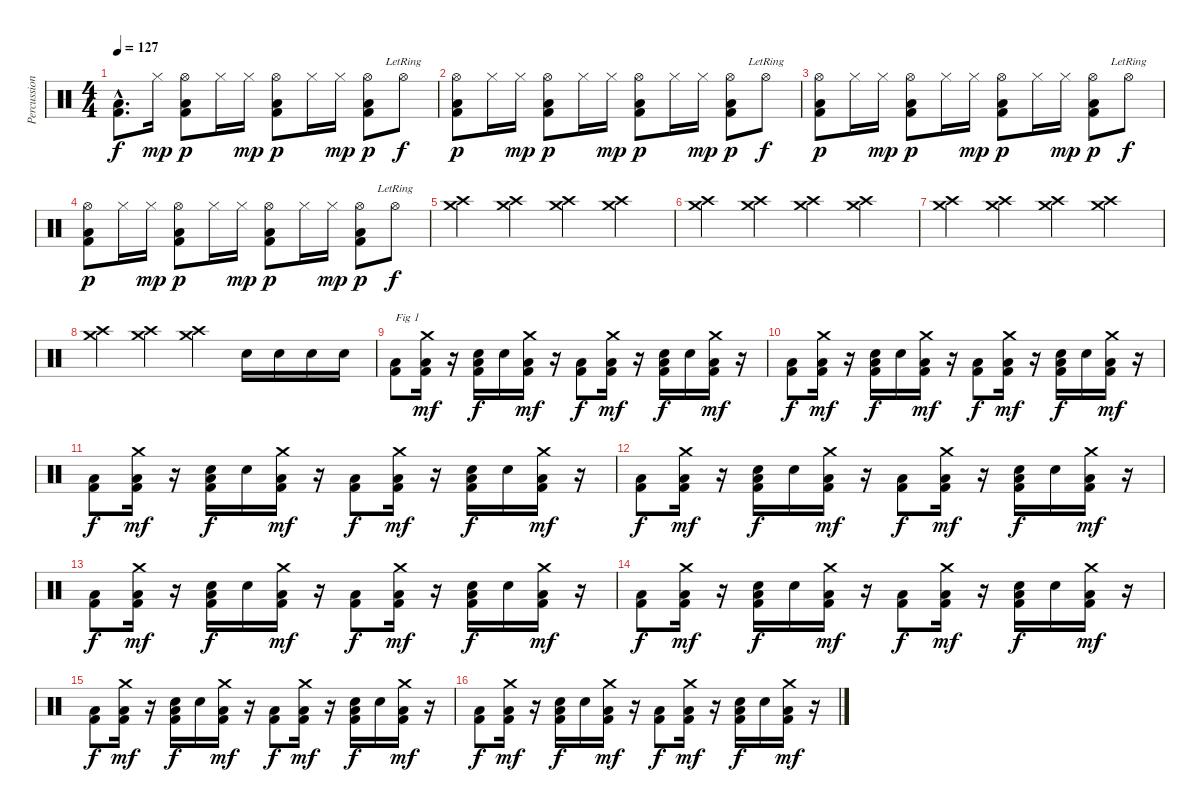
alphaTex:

\track ("Percussions" "Percussion") {instrument percussion}
\staff {score}
\articulation defaults
\ts (4 4)
\tempo 127
\clef neutral
\ks c
("Low Floor Tom (hit)"{hac} "Kick (hit) 2"{hac}).8{d dy f} "Hi-Hat (closed)".16{dy mp} ("Low Floor Tom (hit)" "Kick (hit) 2" "Hi-Hat (open)").8{dy p} "Hi-Hat (closed)".16 "Hi-Hat (closed)".16{dy mp} ("Low Floor Tom (hit)" "Kick (hit) 2" "Hi-Hat (open)").8{dy p} "Hi-Hat (closed)".16 "Hi-Hat (closed)".16{dy mp} ("Low Floor Tom (hit)" "Kick (hit) 2" "Hi-Hat (open)").8{dy p} "Hi-Hat (open)"{lr}.8{dy f} |
("Low Floor Tom (hit)" "Kick (hit) 2" "Hi-Hat (open)").8{dy p} "Hi-Hat (closed)".16 "Hi-Hat (closed)".16{dy mp} ("Low Floor Tom (hit)" "Kick (hit) 2" "Hi-Hat (open)").8{dy p} "Hi-Hat (closed)".16 "Hi-Hat (closed)".16{dy mp} ("Low Floor Tom (hit)" "Kick (hit) 2" "Hi-Hat (open)").8{dy p} "Hi-Hat (closed)".16 "Hi-Hat (closed)".16{dy mp} ("Low Floor Tom (hit)" "Kick (hit) 2" "Hi-Hat (open)").8{dy p} "Hi-Hat (open)"{lr}.8{dy f} |
("Low Floor Tom (hit)" "Kick (hit) 2" "Hi-Hat (open)").8{dy p} "Hi-Hat (closed)".16 "Hi-Hat (closed)".16{dy mp} ("Low Floor Tom (hit)" "Kick (hit) 2" "Hi-Hat (open)").8{dy p} "Hi-Hat (closed)".16 "Hi-Hat (closed)".16{dy mp} ("Low Floor Tom (hit)" "Kick (hit) 2" "Hi-Hat (open)").8{dy p} "Hi-Hat (closed)".16 "Hi-Hat (closed)".16{dy mp} ("Low Floor Tom (hit)" "Kick (hit) 2" "Hi-Hat (open)").8{dy p} "Hi-Hat (open)"{lr}.8{dy f} |
("Low Floor Tom (hit)" "Kick (hit) 2" "Hi-Hat (open)").8{dy p} "Hi-Hat (closed)".16 "Hi-Hat (closed)".16{dy mp} ("Low Floor Tom (hit)" "Kick (hit) 2" "Hi-Hat (open)").8{dy p} "Hi-Hat (closed)".16 "Hi-Hat (closed)".16{dy mp} ("Low Floor Tom (hit)" "Kick (hit) 2" "Hi-Hat (open)").8{dy p} "Hi-Hat (closed)".16 "Hi-Hat (closed)".16{dy mp} ("Low Floor Tom (hit)" "Kick (hit) 2" "Hi-Hat (open)").8{dy p} "Hi-Hat (open)"{lr}.8{dy f} |
("Crash high (hit)" "Crash medium (hit)").4 ("Crash high (hit)" "Crash medium (hit)").4 ("Crash high (hit)" "Crash medium (hit)").4 ("Crash high (hit)" "Crash medium (hit)").4 |
("Crash high (hit)" "Crash medium (hit)").4 ("Crash high (hit)" "Crash medium (hit)").4 ("Crash high (hit)" "Crash medium (hit)").4 ("Crash high (hit)" "Crash medium (hit)").4 |
("Crash high (hit)" "Crash medium (hit)").4 ("Crash high (hit)" "Crash medium (hit)").4 ("Crash high (hit)" "Crash medium (hit)").4 ("Crash high (hit)" "Crash medium (hit)").4 |
("Crash high (hit)" "Crash medium (hit)").4 ("Crash high (hit)" "Crash medium (hit)").4 ("Crash high (hit)" "Crash medium (hit)").4 "Electric Snare (hit)".16 "Electric Snare (hit)".16 "Electric Snare (hit)".16 "Electric Snare (hit)".16 |
("Low Floor Tom (hit)" "Kick (hit) 2").8{txt "Fig 1"} ("Low Floor Tom (hit)" "Kick (hit) 2" "Crash medium (hit)").16{dy mf} r.16 ("Low Floor Tom (hit)" "Kick (hit) 2" "Electric Snare (hit)").16{dy f} "Electric Snare (hit)".16 ("Low Floor Tom (hit)" "Kick (hit) 2" "Crash medium (hit)").16{dy mf} r.16 ("Low Floor Tom (hit)" "Kick (hit) 2").8{dy f} ("Low Floor Tom (hit)" "Kick (hit) 2" "Crash medium (hit)").16{dy mf} r.16 ("Low Floor Tom (hit)" "Kick (hit) 2" "Electric Snare (hit)").16{dy f} "Electric Snare (hit)".16 ("Low Floor Tom (hit)" "Kick (hit) 2" "Crash medium (hit)").16{dy mf} r.16 |
("Low Floor Tom (hit)" "Kick (hit) 2").8{dy f} ("Low Floor Tom (hit)" "Kick (hit) 2" "Crash medium (hit)").16{dy mf} r.16 ("Low Floor Tom (hit)" "Kick (hit) 2" "Electric Snare (hit)").16{dy f} "Electric Snare (hit)".16 ("Low Floor Tom (hit)" "Kick (hit) 2" "Crash medium (hit)").16{dy mf} r.16 ("Low Floor Tom (hit)" "Kick (hit) 2").8{dy f} ("Low Floor Tom (hit)" "Kick (hit) 2" "Crash medium (hit)").16{dy mf} r.16 ("Low Floor Tom (hit)" "Kick (hit) 2" "Electric Snare (hit)").16{dy f} "Electric Snare (hit)".16 ("Low Floor Tom (hit)" "Kick (hit) 2" "Crash medium (hit)").16{dy mf} r.16 |
("Low Floor Tom (hit)" "Kick (hit) 2").8{dy f} ("Low Floor Tom (hit)" "Kick (hit) 2" "Crash medium (hit)").16{dy mf} r.16 ("Low Floor Tom (hit)" "Kick (hit) 2" "Electric Snare (hit)").16{dy f} "Electric Snare (hit)".16 ("Low Floor Tom (hit)" "Kick (hit) 2" "Crash medium (hit)").16{dy mf} r.16 ("Low Floor Tom (hit)" "Kick (hit) 2").8{dy f} ("Low Floor Tom (hit)" "Kick (hit) 2" "Crash medium (hit)").16{dy mf} r.16 ("Low Floor Tom (hit)" "Kick (hit) 2" "Electric Snare (hit)").16{dy f} "Electric Snare (hit)".16 ("Low Floor Tom (hit)" "Kick (hit) 2" "Crash medium (hit)").16{dy mf} r.16 |
("Low Floor Tom (hit)" "Kick (hit) 2").8{dy f} ("Low Floor Tom (hit)" "Kick (hit) 2" "Crash medium (hit)").16{dy mf} r.16 ("Low Floor Tom (hit)" "Kick (hit) 2" "Electric Snare (hit)").16{dy f} "Electric Snare (hit)".16 ("Low Floor Tom (hit)" "Kick (hit) 2" "Crash medium (hit)").16{dy mf} r.16 ("Low Floor Tom (hit)" "Kick (hit) 2").8{dy f} ("Low Floor Tom (hit)" "Kick (hit) 2" "Crash medium (hit)").16{dy mf} r.16 ("Low Floor Tom (hit)" "Kick (hit) 2" "Electric Snare (hit)").16{dy f} "Electric Snare (hit)".16 ("Low Floor Tom (hit)" "Kick (hit) 2" "Crash medium (hit)").16{dy mf} r.16 |
("Low Floor Tom (hit)" "Kick (hit) 2").8{dy f} ("Low Floor Tom (hit)" "Kick (hit) 2" "Crash medium (hit)").16{dy mf} r.16 ("Low Floor Tom (hit)" "Kick (hit) 2" "Electric Snare (hit)").16{dy f} "Electric Snare (hit)".16 ("Low Floor Tom (hit)" "Kick (hit) 2" "Crash medium (hit)").16{dy mf} r.16 ("Low Floor Tom (hit)" "Kick (hit) 2").8{dy f} ("Low Floor Tom (hit)" "Kick (hit) 2" "Crash medium (hit)").16{dy mf} r.16 ("Low Floor Tom (hit)" "Kick (hit) 2" "Electric Snare (hit)").16{dy f} "Electric Snare (hit)".16 ("Low Floor Tom (hit)" "Kick (hit) 2" "Crash medium (hit)").16{dy mf} r.16 |
("Low Floor Tom (hit)" "Kick (hit) 2").8{dy f} ("Low Floor Tom (hit)" "Kick (hit) 2" "Crash medium (hit)").16{dy mf} r.16 ("Low Floor Tom (hit)" "Kick (hit) 2" "Electric Snare (hit)").16{dy f} "Electric Snare (hit)".16 ("Low Floor Tom (hit)" "Kick (hit) 2" "Crash medium (hit)").16{dy mf} r.16 ("Low Floor Tom (hit)" "Kick (hit) 2").8{dy f} ("Low Floor Tom (hit)" "Kick (hit) 2" "Crash medium (hit)").16{dy mf} r.16 ("Low Floor Tom (hit)" "Kick (hit) 2" "Electric Snare (hit)").16{dy f} "Electric Snare (hit)".16 ("Low Floor Tom (hit)" "Kick (hit) 2" "Crash medium (hit)").16{dy mf} r.16 |
("Low Floor Tom (hit)" "Kick (hit) 2").8{dy f} ("Low Floor Tom (hit)" "Kick (hit) 2" "Crash medium (hit)").16{dy mf} r.16 ("Low Floor Tom (hit)" "Kick (hit) 2" "Electric Snare (hit)").16{dy f} "Electric Snare (hit)".16 ("Low Floor Tom (hit)" "Kick (hit) 2" "Crash medium (hit)").16{dy mf} r.16 ("Low Floor Tom (hit)" "Kick (hit) 2").8{dy f} ("Low Floor Tom (hit)" "Kick (hit) 2" "Crash medium (hit)").16{dy mf} r.16 ("Low Floor Tom (hit)" "Kick (hit) 2" "Electric Snare (hit)").16{dy f} "Electric Snare (hit)".16 ("Low Floor Tom (hit)" "Kick (hit) 2" "Crash medium (hit)").16{dy mf} r.16 |
("Low Floor Tom (hit)" "Kick (hit) 2").8{dy f} ("Low Floor Tom (hit)" "Kick (hit) 2" "Crash medium (hit)").16{dy mf} r.16 ("Low Floor Tom (hit)" "Kick (hit) 2" "Electric Snare (hit)").16{dy f} "Electric Snare (hit)".16 ("Low Floor Tom (hit)" "Kick (hit) 2" "Crash medium (hit)").16{dy mf} r.16 ("Low Floor Tom (hit)" "Kick (hit) 2").8{dy f} ("Low Floor Tom (hit)" "Kick (hit) 2" "Crash medium (hit)").16{dy mf} r.16 ("Low Floor Tom (hit)" "Kick (hit) 2" "Electric Snare (hit)").16{dy f} "Electric Snare (hit)".16 ("Low Floor Tom (hit)" "Kick (hit) 2" "Crash medium (hit)").16{dy mf} r.16
